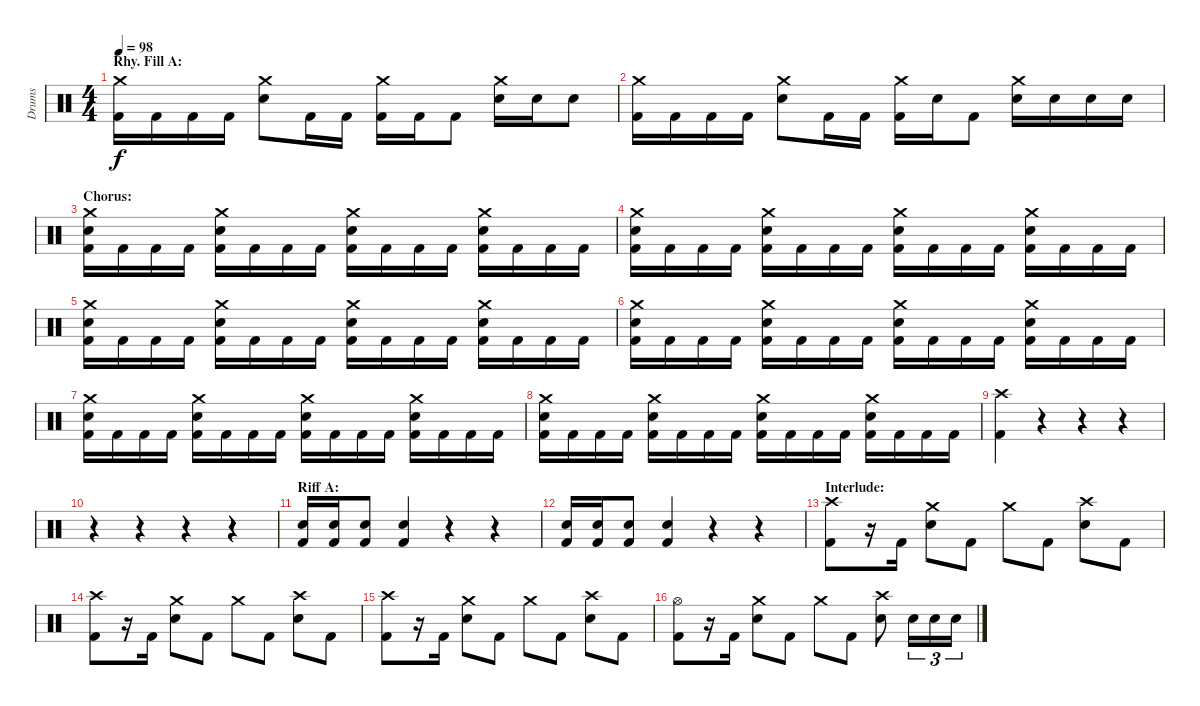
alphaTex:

\track ("Drums" "Drums") {instrument percussion}
\staff {score}
\articulation defaults
\ts (4 4)
\section ("" "Rhy. Fill A:")
\tempo 98
\clef neutral
\ks c
("Crash medium (hit)" "Kick (hit) 2").16{dy f} "Kick (hit) 2".16 "Kick (hit) 2".16 "Kick (hit) 2".16 ("Crash medium (hit)" "Electric Snare (hit)").8 "Kick (hit) 2".16 "Kick (hit) 2".16 ("Crash medium (hit)" "Kick (hit) 2").16 "Kick (hit) 2".16 "Kick (hit) 2".8 ("Crash medium (hit)" "Electric Snare (hit)").16 "Electric Snare (hit)".16 "Electric Snare (hit)".8 |
("Crash medium (hit)" "Kick (hit) 2").16 "Kick (hit) 2".16 "Kick (hit) 2".16 "Kick (hit) 2".16 ("Crash medium (hit)" "Electric Snare (hit)").8 "Kick (hit) 2".16 "Kick (hit) 2".16 ("Crash medium (hit)" "Kick (hit) 2").16 "Electric Snare (hit)".16 "Kick (hit) 2".8 ("Crash medium (hit)" "Electric Snare (hit)").16 "Electric Snare (hit)".16 "Electric Snare (hit)".16 "Electric Snare (hit)".16 |
\section ("" "Chorus:")
("Crash medium (hit)" "Electric Snare (hit)" "Kick (hit) 2").16 "Kick (hit) 2".16 "Kick (hit) 2".16 "Kick (hit) 2".16 ("Crash medium (hit)" "Electric Snare (hit)" "Kick (hit) 2").16 "Kick (hit) 2".16 "Kick (hit) 2".16 "Kick (hit) 2".16 ("Crash medium (hit)" "Electric Snare (hit)" "Kick (hit) 2").16 "Kick (hit) 2".16 "Kick (hit) 2".16 "Kick (hit) 2".16 ("Crash medium (hit)" "Electric Snare (hit)" "Kick (hit) 2").16 "Kick (hit) 2".16 "Kick (hit) 2".16 "Kick (hit) 2".16 |
("Crash medium (hit)" "Electric Snare (hit)" "Kick (hit) 2").16 "Kick (hit) 2".16 "Kick (hit) 2".16 "Kick (hit) 2".16 ("Crash medium (hit)" "Electric Snare (hit)" "Kick (hit) 2").16 "Kick (hit) 2".16 "Kick (hit) 2".16 "Kick (hit) 2".16 ("Crash medium (hit)" "Electric Snare (hit)" "Kick (hit) 2").16 "Kick (hit) 2".16 "Kick (hit) 2".16 "Kick (hit) 2".16 ("Crash medium (hit)" "Electric Snare (hit)" "Kick (hit) 2").16 "Kick (hit) 2".16 "Kick (hit) 2".16 "Kick (hit) 2".16 |
("Crash medium (hit)" "Electric Snare (hit)" "Kick (hit) 2").16 "Kick (hit) 2".16 "Kick (hit) 2".16 "Kick (hit) 2".16 ("Crash medium (hit)" "Electric Snare (hit)" "Kick (hit) 2").16 "Kick (hit) 2".16 "Kick (hit) 2".16 "Kick (hit) 2".16 ("Crash medium (hit)" "Electric Snare (hit)" "Kick (hit) 2").16 "Kick (hit) 2".16 "Kick (hit) 2".16 "Kick (hit) 2".16 ("Crash medium (hit)" "Electric Snare (hit)" "Kick (hit) 2").16 "Kick (hit) 2".16 "Kick (hit) 2".16 "Kick (hit) 2".16 |
("Crash medium (hit)" "Electric Snare (hit)" "Kick (hit) 2").16 "Kick (hit) 2".16 "Kick (hit) 2".16 "Kick (hit) 2".16 ("Crash medium (hit)" "Electric Snare (hit)" "Kick (hit) 2").16 "Kick (hit) 2".16 "Kick (hit) 2".16 "Kick (hit) 2".16 ("Crash medium (hit)" "Electric Snare (hit)" "Kick (hit) 2").16 "Kick (hit) 2".16 "Kick (hit) 2".16 "Kick (hit) 2".16 ("Crash medium (hit)" "Electric Snare (hit)" "Kick (hit) 2").16 "Kick (hit) 2".16 "Kick (hit) 2".16 "Kick (hit) 2".16 |
("Crash medium (hit)" "Electric Snare (hit)" "Kick (hit) 2").16 "Kick (hit) 2".16 "Kick (hit) 2".16 "Kick (hit) 2".16 ("Crash medium (hit)" "Electric Snare (hit)" "Kick (hit) 2").16 "Kick (hit) 2".16 "Kick (hit) 2".16 "Kick (hit) 2".16 ("Crash medium (hit)" "Electric Snare (hit)" "Kick (hit) 2").16 "Kick (hit) 2".16 "Kick (hit) 2".16 "Kick (hit) 2".16 ("Crash medium (hit)" "Electric Snare (hit)" "Kick (hit) 2").16 "Kick (hit) 2".16 "Kick (hit) 2".16 "Kick (hit) 2".16 |
("Crash medium (hit)" "Electric Snare (hit)" "Kick (hit) 2").16 "Kick (hit) 2".16 "Kick (hit) 2".16 "Kick (hit) 2".16 ("Crash medium (hit)" "Electric Snare (hit)" "Kick (hit) 2").16 "Kick (hit) 2".16 "Kick (hit) 2".16 "Kick (hit) 2".16 ("Crash medium (hit)" "Electric Snare (hit)" "Kick (hit) 2").16 "Kick (hit) 2".16 "Kick (hit) 2".16 "Kick (hit) 2".16 ("Crash medium (hit)" "Electric Snare (hit)" "Kick (hit) 2").16 "Kick (hit) 2".16 "Kick (hit) 2".16 "Kick (hit) 2".16 |
("Crash high (hit)" "Kick (hit) 2").4 r.4 r.4 r.4 |
r.4 r.4 r.4 r.4 |
\section ("" "Riff A:")
("Electric Snare (hit)" "Kick (hit) 2").16 ("Electric Snare (hit)" "Kick (hit) 2").16 ("Electric Snare (hit)" "Kick (hit) 2").8 ("Electric Snare (hit)" "Kick (hit) 2").4 r.4 r.4 |
("Electric Snare (hit)" "Kick (hit) 2").16 ("Electric Snare (hit)" "Kick (hit) 2").16 ("Electric Snare (hit)" "Kick (hit) 2").8 ("Electric Snare (hit)" "Kick (hit) 2").4 r.4 r.4 |
\section ("" "Interlude:")
("Crash high (hit)" "Kick (hit) 2").8 r.16 "Kick (hit) 2".16 ("Crash medium (hit)" "Electric Snare (hit)").8 "Kick (hit) 2".8 "Crash medium (hit)".8 "Kick (hit) 2".8 ("Crash high (hit)" "Electric Snare (hit)").8 "Kick (hit) 2".8 |
("Crash high (hit)" "Kick (hit) 2").8 r.16 "Kick (hit) 2".16 ("Crash medium (hit)" "Electric Snare (hit)").8 "Kick (hit) 2".8 "Crash medium (hit)".8 "Kick (hit) 2".8 ("Crash high (hit)" "Electric Snare (hit)").8 "Kick (hit) 2".8 |
("Crash high (hit)" "Kick (hit) 2").8 r.16 "Kick (hit) 2".16 ("Crash medium (hit)" "Electric Snare (hit)").8 "Kick (hit) 2".8 "Crash medium (hit)".8 "Kick (hit) 2".8 ("Crash high (hit)" "Electric Snare (hit)").8 "Kick (hit) 2".8 |
("Hi-Hat (open)" "Kick (hit) 2").8 r.16 "Kick (hit) 2".16 ("Crash medium (hit)" "Electric Snare (hit)").8 "Kick (hit) 2".8 "Crash medium (hit)".8 "Kick (hit) 2".8 ("Crash high (hit)" "Electric Snare (hit)").8 "Electric Snare (hit)".16{tu (3 2)} "Electric Snare (hit)".16{tu (3 2)} "Electric Snare (hit)".16{tu (3 2)}
